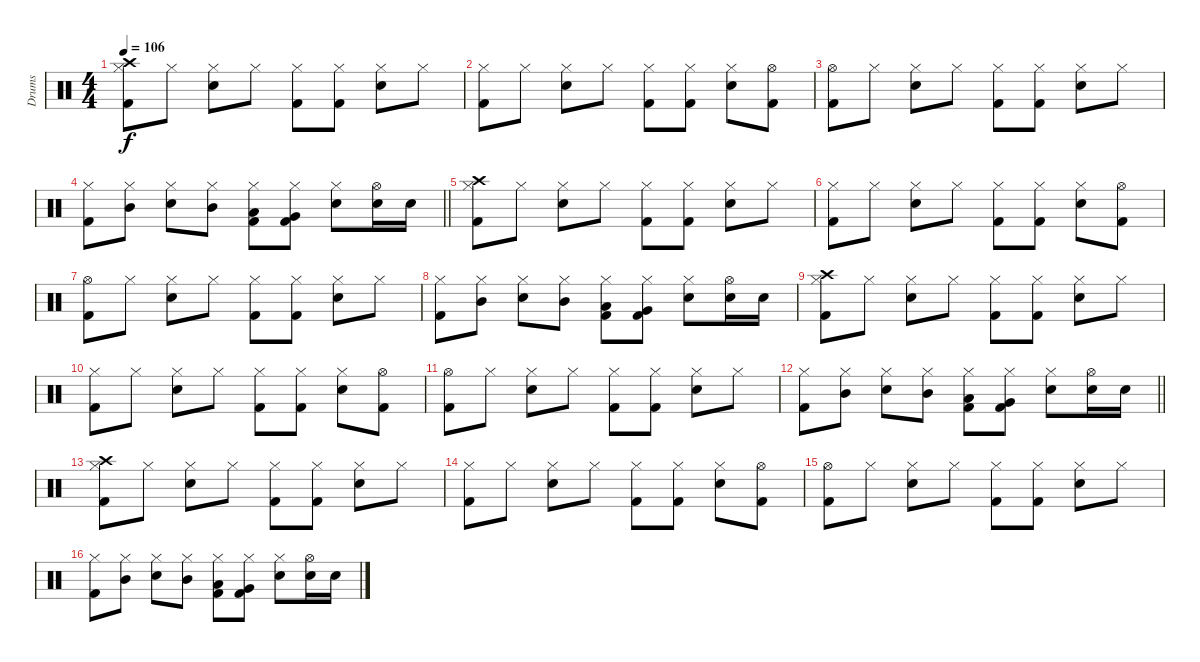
\track ("Drums" "Drums") {instrument percussion}
\staff
\articulation defaults
\ts (4 4)
\tempo 106
\clef neutral
\ks c
("Hi-Hat (closed)" "Crash high (hit)" "Kick (hit) 2").8{dy f} "Hi-Hat (closed)".8 ("Snare (hit) 2" "Hi-Hat (closed)").8 "Hi-Hat (closed)".8 ("Hi-Hat (closed)" "Kick (hit) 2").8 ("Hi-Hat (closed)" "Kick (hit) 2").8 ("Snare (hit) 2" "Hi-Hat (closed)").8 "Hi-Hat (closed)".8 |
("Hi-Hat (closed)" "Kick (hit) 2").8 "Hi-Hat (closed)".8 ("Snare (hit) 2" "Hi-Hat (closed)").8 "Hi-Hat (closed)".8 ("Hi-Hat (closed)" "Kick (hit) 2").8 ("Hi-Hat (closed)" "Kick (hit) 2").8 ("Snare (hit) 2" "Hi-Hat (closed)").8 ("Hi-Hat (open)" "Kick (hit) 2").8 |
("Hi-Hat (open)" "Kick (hit) 2").8 "Hi-Hat (closed)".8 ("Snare (hit) 2" "Hi-Hat (closed)").8 "Hi-Hat (closed)".8 ("Hi-Hat (closed)" "Kick (hit) 2").8 ("Hi-Hat (closed)" "Kick (hit) 2").8 ("Snare (hit) 2" "Hi-Hat (closed)").8 "Hi-Hat (closed)".8 |
\barLineRight lightlight
("Hi-Hat (closed)" "Kick (hit) 2").8 ("Hi-Hat (closed)" "Mid Tom (hit)").8 ("Snare (hit) 2" "Hi-Hat (closed)").8 ("Hi-Hat (closed)" "Mid Tom (hit)").8 ("Hi-Hat (closed)" "Low Tom (hit)" "Kick (hit) 2").8 ("Hi-Hat (closed)" "Very Low Tom (hit)" "Kick (hit) 2").8 ("Snare (hit) 2" "Hi-Hat (closed)").8 ("Snare (hit) 2" "Hi-Hat (open)").16 "Snare (hit) 2".16 |
("Hi-Hat (closed)" "Crash high (hit)" "Kick (hit) 2").8 "Hi-Hat (closed)".8 ("Snare (hit) 2" "Hi-Hat (closed)").8 "Hi-Hat (closed)".8 ("Hi-Hat (closed)" "Kick (hit) 2").8 ("Hi-Hat (closed)" "Kick (hit) 2").8 ("Snare (hit) 2" "Hi-Hat (closed)").8 "Hi-Hat (closed)".8 |
("Hi-Hat (closed)" "Kick (hit) 2").8 "Hi-Hat (closed)".8 ("Snare (hit) 2" "Hi-Hat (closed)").8 "Hi-Hat (closed)".8 ("Hi-Hat (closed)" "Kick (hit) 2").8 ("Hi-Hat (closed)" "Kick (hit) 2").8 ("Snare (hit) 2" "Hi-Hat (closed)").8 ("Hi-Hat (open)" "Kick (hit) 2").8 |
("Hi-Hat (open)" "Kick (hit) 2").8 "Hi-Hat (closed)".8 ("Snare (hit) 2" "Hi-Hat (closed)").8 "Hi-Hat (closed)".8 ("Hi-Hat (closed)" "Kick (hit) 2").8 ("Hi-Hat (closed)" "Kick (hit) 2").8 ("Snare (hit) 2" "Hi-Hat (closed)").8 "Hi-Hat (closed)".8 |
("Hi-Hat (closed)" "Kick (hit) 2").8 ("Hi-Hat (closed)" "Mid Tom (hit)").8 ("Snare (hit) 2" "Hi-Hat (closed)").8 ("Hi-Hat (closed)" "Mid Tom (hit)").8 ("Hi-Hat (closed)" "Low Tom (hit)" "Kick (hit) 2").8 ("Hi-Hat (closed)" "Very Low Tom (hit)" "Kick (hit) 2").8 ("Snare (hit) 2" "Hi-Hat (closed)").8 ("Snare (hit) 2" "Hi-Hat (open)").16 "Snare (hit) 2".16 |
("Hi-Hat (closed)" "Crash high (hit)" "Kick (hit) 2").8 "Hi-Hat (closed)".8 ("Snare (hit) 2" "Hi-Hat (closed)").8 "Hi-Hat (closed)".8 ("Hi-Hat (closed)" "Kick (hit) 2").8 ("Hi-Hat (closed)" "Kick (hit) 2").8 ("Snare (hit) 2" "Hi-Hat (closed)").8 "Hi-Hat (closed)".8 |
("Hi-Hat (closed)" "Kick (hit) 2").8 "Hi-Hat (closed)".8 ("Snare (hit) 2" "Hi-Hat (closed)").8 "Hi-Hat (closed)".8 ("Hi-Hat (closed)" "Kick (hit) 2").8 ("Hi-Hat (closed)" "Kick (hit) 2").8 ("Snare (hit) 2" "Hi-Hat (closed)").8 ("Hi-Hat (open)" "Kick (hit) 2").8 |
("Hi-Hat (open)" "Kick (hit) 2").8 "Hi-Hat (closed)".8 ("Snare (hit) 2" "Hi-Hat (closed)").8 "Hi-Hat (closed)".8 ("Hi-Hat (closed)" "Kick (hit) 2").8 ("Hi-Hat (closed)" "Kick (hit) 2").8 ("Snare (hit) 2" "Hi-Hat (closed)").8 "Hi-Hat (closed)".8 |
\barLineRight lightlight
("Hi-Hat (closed)" "Kick (hit) 2").8 ("Hi-Hat (closed)" "Mid Tom (hit)").8 ("Snare (hit) 2" "Hi-Hat (closed)").8 ("Hi-Hat (closed)" "Mid Tom (hit)").8 ("Hi-Hat (closed)" "Low Tom (hit)" "Kick (hit) 2").8 ("Hi-Hat (closed)" "Very Low Tom (hit)" "Kick (hit) 2").8 ("Snare (hit) 2" "Hi-Hat (closed)").8 ("Snare (hit) 2" "Hi-Hat (open)").16 "Snare (hit) 2".16 |
("Hi-Hat (closed)" "Crash high (hit)" "Kick (hit) 2").8 "Hi-Hat (closed)".8 ("Snare (hit) 2" "Hi-Hat (closed)").8 "Hi-Hat (closed)".8 ("Hi-Hat (closed)" "Kick (hit) 2").8 ("Hi-Hat (closed)" "Kick (hit) 2").8 ("Snare (hit) 2" "Hi-Hat (closed)").8 "Hi-Hat (closed)".8 |
("Hi-Hat (closed)" "Kick (hit) 2").8 "Hi-Hat (closed)".8 ("Snare (hit) 2" "Hi-Hat (closed)").8 "Hi-Hat (closed)".8 ("Hi-Hat (closed)" "Kick (hit) 2").8 ("Hi-Hat (closed)" "Kick (hit) 2").8 ("Snare (hit) 2" "Hi-Hat (closed)").8 ("Hi-Hat (open)" "Kick (hit) 2").8 |
("Hi-Hat (open)" "Kick (hit) 2").8 "Hi-Hat (closed)".8 ("Snare (hit) 2" "Hi-Hat (closed)").8 "Hi-Hat (closed)".8 ("Hi-Hat (closed)" "Kick (hit) 2").8 ("Hi-Hat (closed)" "Kick (hit) 2").8 ("Snare (hit) 2" "Hi-Hat (closed)").8 "Hi-Hat (closed)".8 |
("Hi-Hat (closed)" "Kick (hit) 2").8 ("Hi-Hat (closed)" "Mid Tom (hit)").8 ("Snare (hit) 2" "Hi-Hat (closed)").8 ("Hi-Hat (closed)" "Mid Tom (hit)").8 ("Hi-Hat (closed)" "Low Tom (hit)" "Kick (hit) 2").8 ("Hi-Hat (closed)" "Very Low Tom (hit)" "Kick (hit) 2").8 ("Snare (hit) 2" "Hi-Hat (closed)").8 ("Snare (hit) 2" "Hi-Hat (open)").16 "Snare (hit) 2".16
